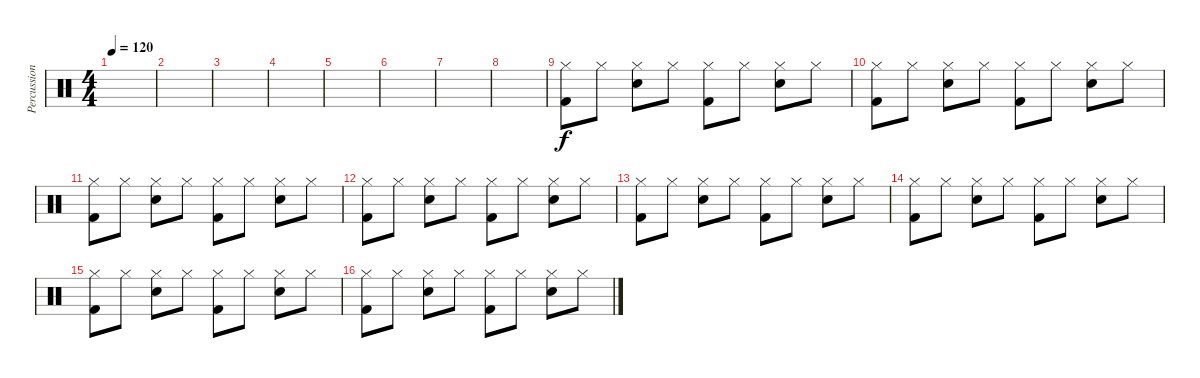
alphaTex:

\track ("Percussions" "Percussion") {instrument percussion}
\staff {score}
\articulation defaults
\ts (4 4)
\tempo 120
\clef neutral
\ks c
|
|
|
|
|
|
|
|
("Hi-Hat (closed)" "Kick (hit) 2").8 "Hi-Hat (closed)".8 ("Hi-Hat (closed)" "Snare (hit) 2").8 "Hi-Hat (closed)".8 ("Hi-Hat (closed)" "Kick (hit) 2").8 "Hi-Hat (closed)".8 ("Hi-Hat (closed)" "Snare (hit) 2").8 "Hi-Hat (closed)".8 |
("Hi-Hat (closed)" "Kick (hit) 2").8 "Hi-Hat (closed)".8 ("Hi-Hat (closed)" "Snare (hit) 2").8 "Hi-Hat (closed)".8 ("Hi-Hat (closed)" "Kick (hit) 2").8 "Hi-Hat (closed)".8 ("Hi-Hat (closed)" "Snare (hit) 2").8 "Hi-Hat (closed)".8 |
("Hi-Hat (closed)" "Kick (hit) 2").8 "Hi-Hat (closed)".8 ("Hi-Hat (closed)" "Snare (hit) 2").8 "Hi-Hat (closed)".8 ("Hi-Hat (closed)" "Kick (hit) 2").8 "Hi-Hat (closed)".8 ("Hi-Hat (closed)" "Snare (hit) 2").8 "Hi-Hat (closed)".8 |
("Hi-Hat (closed)" "Kick (hit) 2").8 "Hi-Hat (closed)".8 ("Hi-Hat (closed)" "Snare (hit) 2").8 "Hi-Hat (closed)".8 ("Hi-Hat (closed)" "Kick (hit) 2").8 "Hi-Hat (closed)".8 ("Hi-Hat (closed)" "Snare (hit) 2").8 "Hi-Hat (closed)".8 |
("Hi-Hat (closed)" "Kick (hit) 2").8 "Hi-Hat (closed)".8 ("Hi-Hat (closed)" "Snare (hit) 2").8 "Hi-Hat (closed)".8 ("Hi-Hat (closed)" "Kick (hit) 2").8 "Hi-Hat (closed)".8 ("Hi-Hat (closed)" "Snare (hit) 2").8 "Hi-Hat (closed)".8 |
("Hi-Hat (closed)" "Kick (hit) 2").8 "Hi-Hat (closed)".8 ("Hi-Hat (closed)" "Snare (hit) 2").8 "Hi-Hat (closed)".8 ("Hi-Hat (closed)" "Kick (hit) 2").8 "Hi-Hat (closed)".8 ("Hi-Hat (closed)" "Snare (hit) 2").8 "Hi-Hat (closed)".8 |
("Hi-Hat (closed)" "Kick (hit) 2").8 "Hi-Hat (closed)".8 ("Hi-Hat (closed)" "Snare (hit) 2").8 "Hi-Hat (closed)".8 ("Hi-Hat (closed)" "Kick (hit) 2").8 "Hi-Hat (closed)".8 ("Hi-Hat (closed)" "Snare (hit) 2").8 "Hi-Hat (closed)".8 |
("Hi-Hat (closed)" "Kick (hit) 2").8 "Hi-Hat (closed)".8 ("Hi-Hat (closed)" "Snare (hit) 2").8 "Hi-Hat (closed)".8 ("Hi-Hat (closed)" "Kick (hit) 2").8 "Hi-Hat (closed)".8 ("Hi-Hat (closed)" "Snare (hit) 2").8 "Hi-Hat (closed)".8
